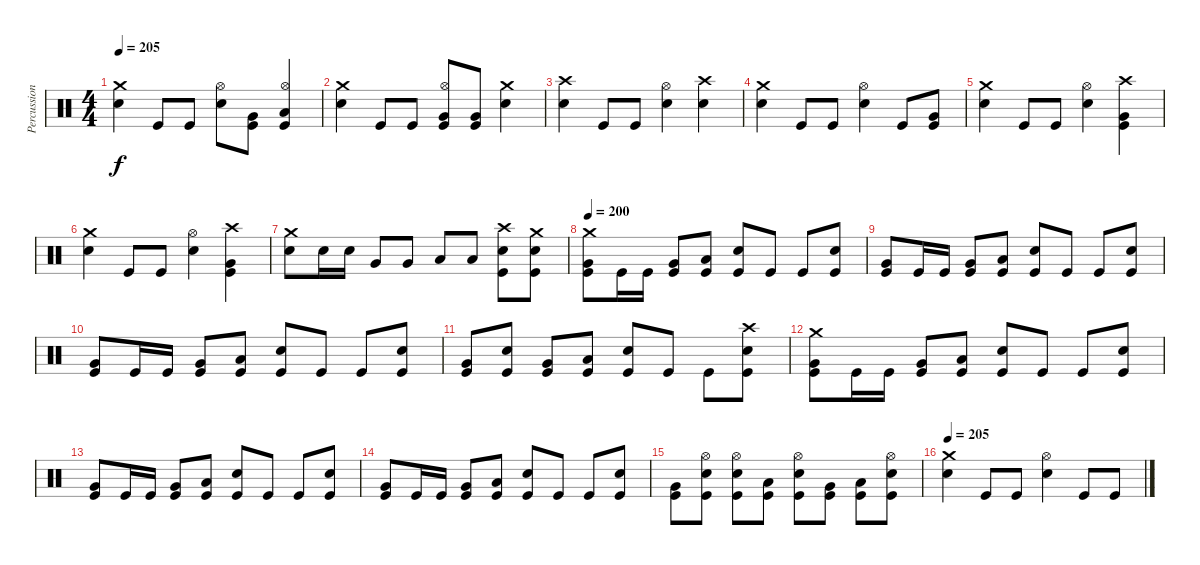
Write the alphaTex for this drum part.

\track ("Percussion" "Percussion") {instrument percussion}
\staff {score}
\articulation defaults
\ts (4 4)
\tempo 205
\clef neutral
\ks c
("Snare (hit) 2" "Crash medium (hit)").4{dy f} "Kick (hit)".8 "Kick (hit)".8 ("Snare (hit) 2" "Hi-Hat (open)").8 ("Kick (hit)" "Very Low Tom (hit)").8 ("Kick (hit)" "Low Floor Tom (hit)" "Hi-Hat (open)").4 |
("Snare (hit) 2" "Crash medium (hit)").4 "Kick (hit)".8 "Kick (hit)".8 ("Kick (hit)" "Very Low Tom (hit)" "Hi-Hat (open)").8 ("Kick (hit)" "Very Low Tom (hit)").8 ("Snare (hit) 2" "Crash medium (hit)").4 |
("Snare (hit) 2" "Crash high (hit)").4 "Kick (hit)".8 "Kick (hit)".8 ("Snare (hit) 2" "Hi-Hat (open)").4 ("Snare (hit) 2" "Crash high (hit)").4 |
("Snare (hit) 2" "Crash medium (hit)").4 "Kick (hit)".8 "Kick (hit)".8 ("Snare (hit) 2" "Hi-Hat (open)").4 "Kick (hit)".8 ("Kick (hit)" "Very Low Tom (hit)").8 |
("Snare (hit) 2" "Crash medium (hit)").4 "Kick (hit)".8 "Kick (hit)".8 ("Snare (hit) 2" "Hi-Hat (open)").4 ("Kick (hit)" "Very Low Tom (hit)" "Crash high (hit)").4 |
("Snare (hit) 2" "Crash medium (hit)").4 "Kick (hit)".8 "Kick (hit)".8 ("Snare (hit) 2" "Hi-Hat (open)").4 ("Kick (hit)" "Very Low Tom (hit)" "Crash high (hit)").4 |
("Snare (hit) 2" "Crash medium (hit)").8 "Snare (hit) 2".16 "Snare (hit) 2".16 "Very Low Tom (hit)".8 "Very Low Tom (hit)".8 "Low Floor Tom (hit)".8 "Low Floor Tom (hit)".8 ("Kick (hit)" "Snare (hit) 2" "Crash high (hit)").8 ("Kick (hit)" "Snare (hit) 2" "Crash medium (hit)").8 |
\tempo 200
("Kick (hit)" "Very Low Tom (hit)" "Crash medium (hit)").8 "Kick (hit)".16 "Kick (hit)".16 ("Kick (hit)" "Very Low Tom (hit)").8 ("Kick (hit)" "Low Floor Tom (hit)").8 ("Kick (hit)" "Snare (hit) 2").8 "Kick (hit)".8 "Kick (hit)".8 ("Kick (hit)" "Snare (hit) 2").8 |
("Kick (hit)" "Very Low Tom (hit)").8 "Kick (hit)".16 "Kick (hit)".16 ("Kick (hit)" "Very Low Tom (hit)").8 ("Kick (hit)" "Low Floor Tom (hit)").8 ("Kick (hit)" "Snare (hit) 2").8 "Kick (hit)".8 "Kick (hit)".8 ("Kick (hit)" "Snare (hit) 2").8 |
("Kick (hit)" "Very Low Tom (hit)").8 "Kick (hit)".16 "Kick (hit)".16 ("Kick (hit)" "Very Low Tom (hit)").8 ("Kick (hit)" "Low Floor Tom (hit)").8 ("Kick (hit)" "Snare (hit) 2").8 "Kick (hit)".8 "Kick (hit)".8 ("Kick (hit)" "Snare (hit) 2").8 |
("Kick (hit)" "Very Low Tom (hit)").8 ("Kick (hit)" "Snare (hit) 2").8 ("Kick (hit)" "Very Low Tom (hit)").8 ("Kick (hit)" "Low Floor Tom (hit)").8 ("Kick (hit)" "Snare (hit) 2").8 "Kick (hit)".8 "Kick (hit)".8 ("Kick (hit)" "Snare (hit) 2" "Crash high (hit)").8 |
("Kick (hit)" "Very Low Tom (hit)" "Crash medium (hit)").8 "Kick (hit)".16 "Kick (hit)".16 ("Kick (hit)" "Very Low Tom (hit)").8 ("Kick (hit)" "Low Floor Tom (hit)").8 ("Kick (hit)" "Snare (hit) 2").8 "Kick (hit)".8 "Kick (hit)".8 ("Kick (hit)" "Snare (hit) 2").8 |
("Kick (hit)" "Very Low Tom (hit)").8 "Kick (hit)".16 "Kick (hit)".16 ("Kick (hit)" "Very Low Tom (hit)").8 ("Kick (hit)" "Low Floor Tom (hit)").8 ("Kick (hit)" "Snare (hit) 2").8 "Kick (hit)".8 "Kick (hit)".8 ("Kick (hit)" "Snare (hit) 2").8 |
("Kick (hit)" "Very Low Tom (hit)").8 "Kick (hit)".16 "Kick (hit)".16 ("Kick (hit)" "Very Low Tom (hit)").8 ("Kick (hit)" "Low Floor Tom (hit)").8 ("Kick (hit)" "Snare (hit) 2").8 "Kick (hit)".8 "Kick (hit)".8 ("Kick (hit)" "Snare (hit) 2").8 |
("Kick (hit)" "Very Low Tom (hit)").8 ("Kick (hit)" "Snare (hit) 2" "Hi-Hat (open)").8 ("Kick (hit)" "Snare (hit) 2" "Hi-Hat (open)").8 ("Kick (hit)" "Low Floor Tom (hit)").8 ("Kick (hit)" "Snare (hit) 2" "Hi-Hat (open)").8 ("Kick (hit)" "Very Low Tom (hit)").8 ("Kick (hit)" "Low Floor Tom (hit)").8 ("Kick (hit)" "Snare (hit) 2" "Hi-Hat (open)").8 |
\tempo 205
("Snare (hit) 2" "Crash medium (hit)").4 "Kick (hit)".8 "Kick (hit)".8 ("Snare (hit) 2" "Hi-Hat (open)").4 "Kick (hit)".8 "Kick (hit)".8
